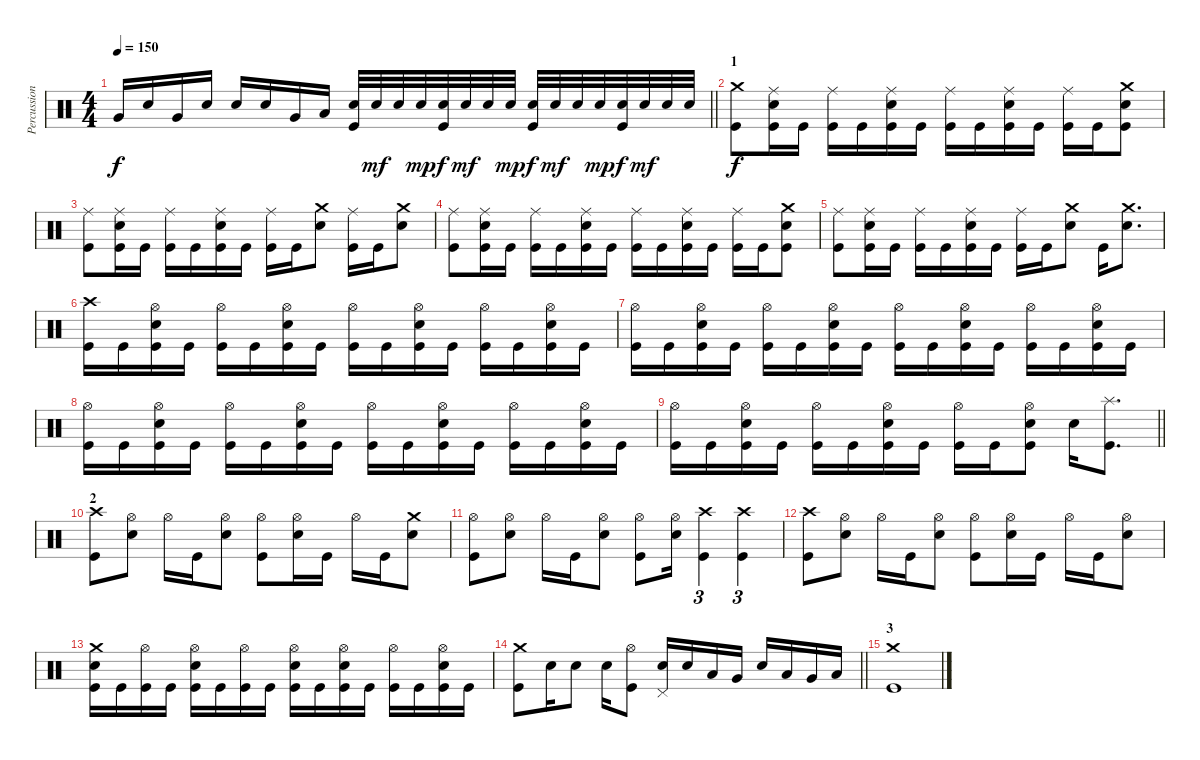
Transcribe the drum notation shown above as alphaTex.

\track ("Percussion" "Percussion") {instrument percussion}
\staff {score}
\articulation defaults
\ts (4 4)
\tempo 150
\clef neutral
\barLineRight lightlight
\ks c "Very Low Tom (hit)".16{dy f} "Snare (hit) 2".16 "Very Low Tom (hit)".16 "Snare (hit) 2".16 "Snare (hit) 2".16 "Snare (hit) 2".16 "Very Low Tom (hit)".16 "Low Tom (hit)".16
("Snare (hit) 2" "Kick (hit)").32 "Snare (hit) 2".32{dy mf} "Snare (hit) 2".32 "Snare (hit) 2".32{dy mp} ("Snare (hit) 2" "Kick (hit)").32{dy f} "Snare (hit) 2".32{dy mf} "Snare (hit) 2".32 "Snare (hit) 2".32{dy mp} ("Snare (hit) 2" "Kick (hit)").32{dy f} "Snare (hit) 2".32{dy mf} "Snare (hit) 2".32 "Snare (hit) 2".32{dy mp} ("Snare (hit) 2" "Kick (hit)").32{dy f} "Snare (hit) 2".32{dy mf} "Snare (hit) 2".32 "Snare (hit) 2".32 |
\section ("" "1")
("Crash medium (hit)" "Kick (hit)").8{dy f} ("Ride (middle)" "Snare (hit) 2" "Kick (hit)").16 "Kick (hit)".16 ("Ride (middle)" "Kick (hit)").16 "Kick (hit)".16 ("Ride (middle)" "Snare (hit) 2" "Kick (hit)").16 "Kick (hit)".16 ("Ride (middle)" "Kick (hit)").16 "Kick (hit)".16 ("Ride (middle)" "Snare (hit) 2" "Kick (hit)").16 "Kick (hit)".16 ("Ride (middle)" "Kick (hit)").16 "Kick (hit)".16 ("Crash medium (hit)" "Snare (hit) 2" "Kick (hit)").8 |
("Ride (middle)" "Kick (hit)").8 ("Ride (middle)" "Snare (hit) 2" "Kick (hit)").16 "Kick (hit)".16 ("Ride (middle)" "Kick (hit)").16 "Kick (hit)".16 ("Ride (middle)" "Snare (hit) 2" "Kick (hit)").16 "Kick (hit)".16 ("Ride (middle)" "Kick (hit)").16 "Kick (hit)".16 ("Crash medium (hit)" "Snare (hit) 2").8 ("Ride (middle)" "Kick (hit)").16 "Kick (hit)".16 ("Crash medium (hit)" "Snare (hit) 2").8 |
("Ride (middle)" "Kick (hit)").8 ("Ride (middle)" "Snare (hit) 2" "Kick (hit)").16 "Kick (hit)".16 ("Ride (middle)" "Kick (hit)").16 "Kick (hit)".16 ("Ride (middle)" "Snare (hit) 2" "Kick (hit)").16 "Kick (hit)".16 ("Ride (middle)" "Kick (hit)").16 "Kick (hit)".16 ("Ride (middle)" "Snare (hit) 2" "Kick (hit)").16 "Kick (hit)".16 ("Ride (middle)" "Kick (hit)").16 "Kick (hit)".16 ("Crash medium (hit)" "Snare (hit) 2" "Kick (hit)").8 |
("Ride (middle)" "Kick (hit)").8 ("Ride (middle)" "Snare (hit) 2" "Kick (hit)").16 "Kick (hit)".16 ("Ride (middle)" "Kick (hit)").16 "Kick (hit)".16 ("Ride (middle)" "Snare (hit) 2" "Kick (hit)").16 "Kick (hit)".16 ("Ride (middle)" "Kick (hit)").16 "Kick (hit)".16 ("Crash medium (hit)" "Snare (hit) 2").8 "Kick (hit)".16 ("Crash medium (hit)" "Snare (hit) 2").8{d} |
("Crash high (hit)" "Kick (hit)").16 "Kick (hit)".16 ("Hi-Hat (open)" "Snare (hit) 2" "Kick (hit)").16 "Kick (hit)".16 ("Hi-Hat (open)" "Kick (hit)").16 "Kick (hit)".16 ("Hi-Hat (open)" "Snare (hit) 2" "Kick (hit)").16 "Kick (hit)".16 ("Hi-Hat (open)" "Kick (hit)").16 "Kick (hit)".16 ("Hi-Hat (open)" "Snare (hit) 2" "Kick (hit)").16 "Kick (hit)".16 ("Hi-Hat (open)" "Kick (hit)").16 "Kick (hit)".16 ("Hi-Hat (open)" "Snare (hit) 2" "Kick (hit)").16 "Kick (hit)".16 |
("Hi-Hat (open)" "Kick (hit)").16 "Kick (hit)".16 ("Hi-Hat (open)" "Snare (hit) 2" "Kick (hit)").16 "Kick (hit)".16 ("Hi-Hat (open)" "Kick (hit)").16 "Kick (hit)".16 ("Hi-Hat (open)" "Snare (hit) 2" "Kick (hit)").16 "Kick (hit)".16 ("Hi-Hat (open)" "Kick (hit)").16 "Kick (hit)".16 ("Hi-Hat (open)" "Snare (hit) 2" "Kick (hit)").16 "Kick (hit)".16 ("Hi-Hat (open)" "Kick (hit)").16 "Kick (hit)".16 ("Hi-Hat (open)" "Snare (hit) 2" "Kick (hit)").16 "Kick (hit)".16 |
("Hi-Hat (open)" "Kick (hit)").16 "Kick (hit)".16 ("Hi-Hat (open)" "Snare (hit) 2" "Kick (hit)").16 "Kick (hit)".16 ("Hi-Hat (open)" "Kick (hit)").16 "Kick (hit)".16 ("Hi-Hat (open)" "Snare (hit) 2" "Kick (hit)").16 "Kick (hit)".16 ("Hi-Hat (open)" "Kick (hit)").16 "Kick (hit)".16 ("Hi-Hat (open)" "Snare (hit) 2" "Kick (hit)").16 "Kick (hit)".16 ("Hi-Hat (open)" "Kick (hit)").16 "Kick (hit)".16 ("Hi-Hat (open)" "Snare (hit) 2" "Kick (hit)").16 "Kick (hit)".16 |
\barLineRight lightlight
("Hi-Hat (open)" "Kick (hit)").16 "Kick (hit)".16 ("Hi-Hat (open)" "Snare (hit) 2" "Kick (hit)").16 "Kick (hit)".16 ("Hi-Hat (open)" "Kick (hit)").16 "Kick (hit)".16 ("Hi-Hat (open)" "Snare (hit) 2" "Kick (hit)").16 "Kick (hit)".16 ("Hi-Hat (open)" "Kick (hit)").16 "Kick (hit)".16 ("Hi-Hat (open)" "Snare (hit) 2" "Kick (hit)").8 "Snare (hit) 2".16 ("Splash (hit)" "Kick (hit)").8{d} |
\section ("" "2")
("Crash high (hit)" "Kick (hit)").8 ("Hi-Hat (open)" "Snare (hit) 2").8 "Hi-Hat (open)".16 "Kick (hit)".16 ("Hi-Hat (open)" "Snare (hit) 2").8 ("Hi-Hat (open)" "Kick (hit)").8 ("Hi-Hat (open)" "Snare (hit) 2").16 "Kick (hit)".16 "Hi-Hat (open)".16 "Kick (hit)".16 ("Crash medium (hit)" "Snare (hit) 2").8 |
("Hi-Hat (open)" "Kick (hit)").8 ("Hi-Hat (open)" "Snare (hit) 2").8 "Hi-Hat (open)".16 "Kick (hit)".16 ("Hi-Hat (open)" "Snare (hit) 2").8 ("Hi-Hat (open)" "Kick (hit)").8 ("Hi-Hat (open)" "Snare (hit) 2").16 ("Crash high (hit)" "Kick (hit)").4{tu (3 2)} ("Crash high (hit)" "Kick (hit)").4{tu (3 2)} |
("Crash high (hit)" "Kick (hit)").8 ("Hi-Hat (open)" "Snare (hit) 2").8 "Hi-Hat (open)".16 "Kick (hit)".16 ("Hi-Hat (open)" "Snare (hit) 2").8 ("Hi-Hat (open)" "Kick (hit)").8 ("Hi-Hat (open)" "Snare (hit) 2").16 "Kick (hit)".16 "Hi-Hat (open)".16 "Kick (hit)".16 ("Hi-Hat (open)" "Snare (hit) 2").8 |
("Crash medium (hit)" "Snare (hit) 2" "Kick (hit)").16 "Kick (hit)".16 ("Hi-Hat (open)" "Kick (hit)").16 "Kick (hit)".16 ("Hi-Hat (open)" "Snare (hit) 2" "Kick (hit)").16 "Kick (hit)".16 ("Hi-Hat (open)" "Kick (hit)").16 "Kick (hit)".16 ("Hi-Hat (open)" "Snare (hit) 2" "Kick (hit)").16 "Kick (hit)".16 ("Hi-Hat (open)" "Snare (hit) 2" "Kick (hit)").16 "Kick (hit)".16 ("Hi-Hat (open)" "Kick (hit)").16 "Kick (hit)".16 ("Hi-Hat (open)" "Snare (hit) 2" "Kick (hit)").16 "Kick (hit)".16 |
\barLineRight lightlight
("Crash medium (hit)" "Kick (hit)").8 "Snare (hit) 2".16 "Snare (hit) 2".8 "Snare (hit) 2".16 ("Hi-Hat (open)" "Kick (hit)").8 ("Pedal Hi-Hat (hit)" "Snare (hit) 2").16 "Snare (hit) 2".16 "Low Tom (hit)".16 "Very Low Tom (hit)".16 "Snare (hit) 2".16 "Low Tom (hit)".16 "Very Low Tom (hit)".16 "Low Floor Tom (hit)".16 |
\section ("" "3")
("Crash medium (hit)" "Kick (hit)").1
